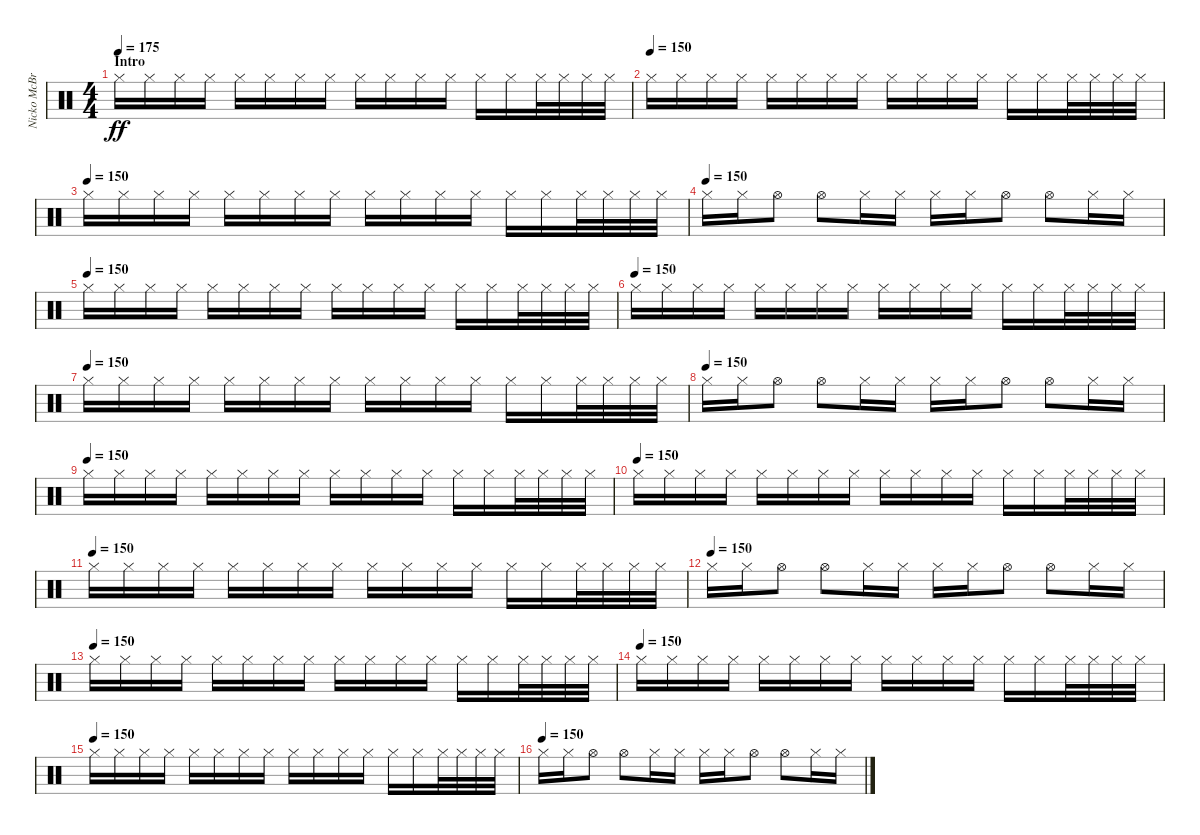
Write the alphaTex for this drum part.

\track ("Nicko McBrain" "Nicko McBr") {instrument percussion}
\staff {score}
\articulation defaults
\ts (4 4)
\section ("" "Intro")
\tempo 175
\tempo 150
\tempo 175
\clef neutral
\ks c "Hi-Hat (closed)".16{dy ff} "Hi-Hat (closed)".16 "Hi-Hat (closed)".16 "Hi-Hat (closed)".16 "Hi-Hat (closed)".16 "Hi-Hat (closed)".16 "Hi-Hat (closed)".16 "Hi-Hat (closed)".16 "Hi-Hat (closed)".16 "Hi-Hat (closed)".16 "Hi-Hat (closed)".16 "Hi-Hat (closed)".16 "Hi-Hat (closed)".16 "Hi-Hat (closed)".16 "Hi-Hat (closed)".32 "Hi-Hat (closed)".32 "Hi-Hat (closed)".32 "Hi-Hat (closed)".32
|
\tempo (150)
"Hi-Hat (closed)".16 "Hi-Hat (closed)".16 "Hi-Hat (closed)".16 "Hi-Hat (closed)".16 "Hi-Hat (closed)".16 "Hi-Hat (closed)".16 "Hi-Hat (closed)".16 "Hi-Hat (closed)".16 "Hi-Hat (closed)".16 "Hi-Hat (closed)".16 "Hi-Hat (closed)".16 "Hi-Hat (closed)".16 "Hi-Hat (closed)".16 "Hi-Hat (closed)".16 "Hi-Hat (closed)".32 "Hi-Hat (closed)".32 "Hi-Hat (closed)".32 "Hi-Hat (closed)".32 |
\tempo (150)
"Hi-Hat (closed)".16 "Hi-Hat (closed)".16 "Hi-Hat (closed)".16 "Hi-Hat (closed)".16 "Hi-Hat (closed)".16 "Hi-Hat (closed)".16 "Hi-Hat (closed)".16 "Hi-Hat (closed)".16 "Hi-Hat (closed)".16 "Hi-Hat (closed)".16 "Hi-Hat (closed)".16 "Hi-Hat (closed)".16 "Hi-Hat (closed)".16 "Hi-Hat (closed)".16 "Hi-Hat (closed)".32 "Hi-Hat (closed)".32 "Hi-Hat (closed)".32 "Hi-Hat (closed)".32 |
\tempo (150)
"Hi-Hat (closed)".16 "Hi-Hat (closed)".16 "Hi-Hat (open)".8 "Hi-Hat (open)".8 "Hi-Hat (closed)".16 "Hi-Hat (closed)".16 "Hi-Hat (closed)".16 "Hi-Hat (closed)".16 "Hi-Hat (open)".8 "Hi-Hat (open)".8 "Hi-Hat (closed)".16 "Hi-Hat (closed)".16 |
\tempo (150)
"Hi-Hat (closed)".16 "Hi-Hat (closed)".16 "Hi-Hat (closed)".16 "Hi-Hat (closed)".16 "Hi-Hat (closed)".16 "Hi-Hat (closed)".16 "Hi-Hat (closed)".16 "Hi-Hat (closed)".16 "Hi-Hat (closed)".16 "Hi-Hat (closed)".16 "Hi-Hat (closed)".16 "Hi-Hat (closed)".16 "Hi-Hat (closed)".16 "Hi-Hat (closed)".16 "Hi-Hat (closed)".32 "Hi-Hat (closed)".32 "Hi-Hat (closed)".32 "Hi-Hat (closed)".32 |
\tempo (150)
"Hi-Hat (closed)".16 "Hi-Hat (closed)".16 "Hi-Hat (closed)".16 "Hi-Hat (closed)".16 "Hi-Hat (closed)".16 "Hi-Hat (closed)".16 "Hi-Hat (closed)".16 "Hi-Hat (closed)".16 "Hi-Hat (closed)".16 "Hi-Hat (closed)".16 "Hi-Hat (closed)".16 "Hi-Hat (closed)".16 "Hi-Hat (closed)".16 "Hi-Hat (closed)".16 "Hi-Hat (closed)".32 "Hi-Hat (closed)".32 "Hi-Hat (closed)".32 "Hi-Hat (closed)".32 |
\tempo (150)
"Hi-Hat (closed)".16 "Hi-Hat (closed)".16 "Hi-Hat (closed)".16 "Hi-Hat (closed)".16 "Hi-Hat (closed)".16 "Hi-Hat (closed)".16 "Hi-Hat (closed)".16 "Hi-Hat (closed)".16 "Hi-Hat (closed)".16 "Hi-Hat (closed)".16 "Hi-Hat (closed)".16 "Hi-Hat (closed)".16 "Hi-Hat (closed)".16 "Hi-Hat (closed)".16 "Hi-Hat (closed)".32 "Hi-Hat (closed)".32 "Hi-Hat (closed)".32 "Hi-Hat (closed)".32 |
\tempo (150)
"Hi-Hat (closed)".16 "Hi-Hat (closed)".16 "Hi-Hat (open)".8 "Hi-Hat (open)".8 "Hi-Hat (closed)".16 "Hi-Hat (closed)".16 "Hi-Hat (closed)".16 "Hi-Hat (closed)".16 "Hi-Hat (open)".8 "Hi-Hat (open)".8 "Hi-Hat (closed)".16 "Hi-Hat (closed)".16 |
\tempo (150)
"Hi-Hat (closed)".16 "Hi-Hat (closed)".16 "Hi-Hat (closed)".16 "Hi-Hat (closed)".16 "Hi-Hat (closed)".16 "Hi-Hat (closed)".16 "Hi-Hat (closed)".16 "Hi-Hat (closed)".16 "Hi-Hat (closed)".16 "Hi-Hat (closed)".16 "Hi-Hat (closed)".16 "Hi-Hat (closed)".16 "Hi-Hat (closed)".16 "Hi-Hat (closed)".16 "Hi-Hat (closed)".32 "Hi-Hat (closed)".32 "Hi-Hat (closed)".32 "Hi-Hat (closed)".32 |
\tempo (150)
"Hi-Hat (closed)".16 "Hi-Hat (closed)".16 "Hi-Hat (closed)".16 "Hi-Hat (closed)".16 "Hi-Hat (closed)".16 "Hi-Hat (closed)".16 "Hi-Hat (closed)".16 "Hi-Hat (closed)".16 "Hi-Hat (closed)".16 "Hi-Hat (closed)".16 "Hi-Hat (closed)".16 "Hi-Hat (closed)".16 "Hi-Hat (closed)".16 "Hi-Hat (closed)".16 "Hi-Hat (closed)".32 "Hi-Hat (closed)".32 "Hi-Hat (closed)".32 "Hi-Hat (closed)".32 |
\tempo (150)
"Hi-Hat (closed)".16 "Hi-Hat (closed)".16 "Hi-Hat (closed)".16 "Hi-Hat (closed)".16 "Hi-Hat (closed)".16 "Hi-Hat (closed)".16 "Hi-Hat (closed)".16 "Hi-Hat (closed)".16 "Hi-Hat (closed)".16 "Hi-Hat (closed)".16 "Hi-Hat (closed)".16 "Hi-Hat (closed)".16 "Hi-Hat (closed)".16 "Hi-Hat (closed)".16 "Hi-Hat (closed)".32 "Hi-Hat (closed)".32 "Hi-Hat (closed)".32 "Hi-Hat (closed)".32 |
\tempo (150)
"Hi-Hat (closed)".16 "Hi-Hat (closed)".16 "Hi-Hat (open)".8 "Hi-Hat (open)".8 "Hi-Hat (closed)".16 "Hi-Hat (closed)".16 "Hi-Hat (closed)".16 "Hi-Hat (closed)".16 "Hi-Hat (open)".8 "Hi-Hat (open)".8 "Hi-Hat (closed)".16 "Hi-Hat (closed)".16 |
\tempo (150)
"Hi-Hat (closed)".16 "Hi-Hat (closed)".16 "Hi-Hat (closed)".16 "Hi-Hat (closed)".16 "Hi-Hat (closed)".16 "Hi-Hat (closed)".16 "Hi-Hat (closed)".16 "Hi-Hat (closed)".16 "Hi-Hat (closed)".16 "Hi-Hat (closed)".16 "Hi-Hat (closed)".16 "Hi-Hat (closed)".16 "Hi-Hat (closed)".16 "Hi-Hat (closed)".16 "Hi-Hat (closed)".32 "Hi-Hat (closed)".32 "Hi-Hat (closed)".32 "Hi-Hat (closed)".32 |
\tempo (150)
"Hi-Hat (closed)".16 "Hi-Hat (closed)".16 "Hi-Hat (closed)".16 "Hi-Hat (closed)".16 "Hi-Hat (closed)".16 "Hi-Hat (closed)".16 "Hi-Hat (closed)".16 "Hi-Hat (closed)".16 "Hi-Hat (closed)".16 "Hi-Hat (closed)".16 "Hi-Hat (closed)".16 "Hi-Hat (closed)".16 "Hi-Hat (closed)".16 "Hi-Hat (closed)".16 "Hi-Hat (closed)".32 "Hi-Hat (closed)".32 "Hi-Hat (closed)".32 "Hi-Hat (closed)".32 |
\tempo (150)
"Hi-Hat (closed)".16 "Hi-Hat (closed)".16 "Hi-Hat (closed)".16 "Hi-Hat (closed)".16 "Hi-Hat (closed)".16 "Hi-Hat (closed)".16 "Hi-Hat (closed)".16 "Hi-Hat (closed)".16 "Hi-Hat (closed)".16 "Hi-Hat (closed)".16 "Hi-Hat (closed)".16 "Hi-Hat (closed)".16 "Hi-Hat (closed)".16 "Hi-Hat (closed)".16 "Hi-Hat (closed)".32 "Hi-Hat (closed)".32 "Hi-Hat (closed)".32 "Hi-Hat (closed)".32 |
\tempo (150)
"Hi-Hat (closed)".16 "Hi-Hat (closed)".16 "Hi-Hat (open)".8 "Hi-Hat (open)".8 "Hi-Hat (closed)".16 "Hi-Hat (closed)".16 "Hi-Hat (closed)".16 "Hi-Hat (closed)".16 "Hi-Hat (open)".8 "Hi-Hat (open)".8 "Hi-Hat (closed)".16 "Hi-Hat (closed)".16
